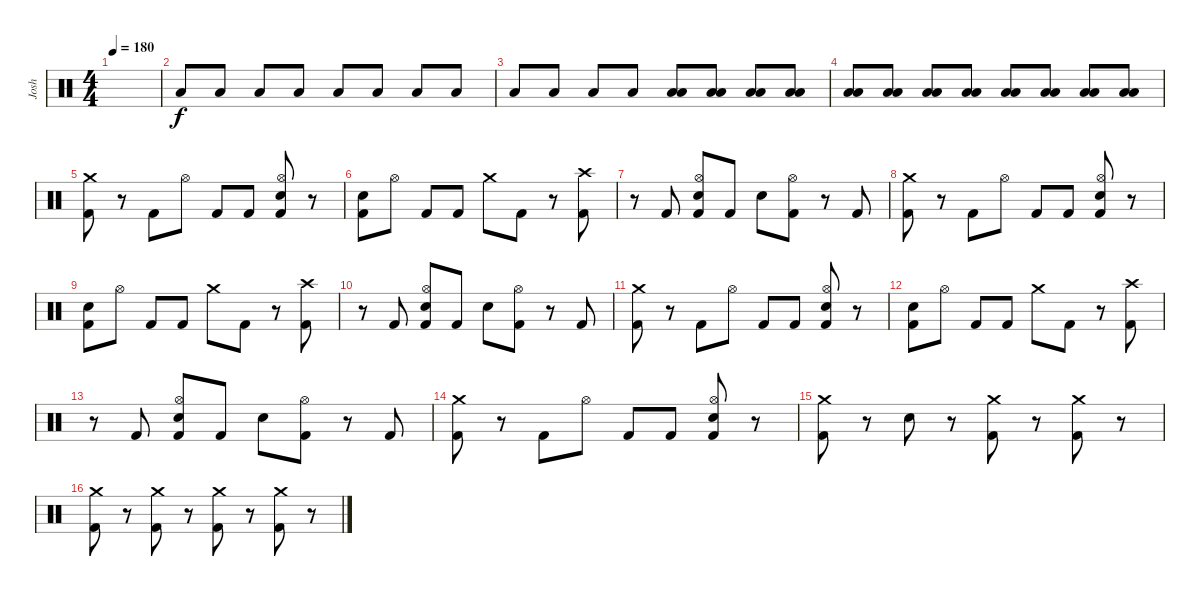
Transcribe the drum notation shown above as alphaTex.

\track ("Josh" "Josh") {instrument percussion}
\staff {score}
\articulation defaults
\ts (4 4)
\tempo 180
\clef neutral
\ks c
|
"Low Tom (hit)".8 "Low Tom (hit)".8 "Low Tom (hit)".8 "Low Tom (hit)".8 "Low Tom (hit)".8 "Low Tom (hit)".8 "Low Tom (hit)".8 "Low Tom (hit)".8 |
"Low Tom (hit)".8 "Low Tom (hit)".8 "Low Tom (hit)".8 "Low Tom (hit)".8 ("Low Floor Tom (hit)" "Low Tom (hit)").8 ("Low Floor Tom (hit)" "Low Tom (hit)").8 ("Low Floor Tom (hit)" "Low Tom (hit)").8 ("Low Floor Tom (hit)" "Low Tom (hit)").8 |
("Low Floor Tom (hit)" "Low Tom (hit)").8 ("Low Floor Tom (hit)" "Low Tom (hit)").8 ("Low Floor Tom (hit)" "Low Tom (hit)").8 ("Low Floor Tom (hit)" "Low Tom (hit)").8 ("Low Floor Tom (hit)" "Low Tom (hit)").8 ("Low Floor Tom (hit)" "Low Tom (hit)").8 ("Low Floor Tom (hit)" "Low Tom (hit)").8 ("Low Floor Tom (hit)" "Low Tom (hit)").8 |
("Crash medium (hit)" "Kick (hit) 2").8 r.8 "Kick (hit) 2".8 "Hi-Hat (open)".8 "Kick (hit) 2".8 "Kick (hit) 2".8 ("Hi-Hat (open)" "Electric Snare (hit)" "Kick (hit) 2").8 r.8 |
("Electric Snare (hit)" "Kick (hit) 2").8 "Hi-Hat (open)".8 "Kick (hit) 2".8 "Kick (hit) 2".8 "Crash medium (hit)".8 "Kick (hit) 2".8 r.8 ("Crash high (hit)" "Kick (hit) 2").8 |
r.8 "Kick (hit) 2".8 ("Hi-Hat (open)" "Electric Snare (hit)" "Kick (hit) 2").8 "Kick (hit) 2".8 "Electric Snare (hit)".8 ("Hi-Hat (open)" "Kick (hit) 2").8 r.8 "Kick (hit) 2".8 |
("Crash medium (hit)" "Kick (hit) 2").8 r.8 "Kick (hit) 2".8 "Hi-Hat (open)".8 "Kick (hit) 2".8 "Kick (hit) 2".8 ("Hi-Hat (open)" "Electric Snare (hit)" "Kick (hit) 2").8 r.8 |
("Electric Snare (hit)" "Kick (hit) 2").8 "Hi-Hat (open)".8 "Kick (hit) 2".8 "Kick (hit) 2".8 "Crash medium (hit)".8 "Kick (hit) 2".8 r.8 ("Crash high (hit)" "Kick (hit) 2").8 |
r.8 "Kick (hit) 2".8 ("Hi-Hat (open)" "Electric Snare (hit)" "Kick (hit) 2").8 "Kick (hit) 2".8 "Electric Snare (hit)".8 ("Hi-Hat (open)" "Kick (hit) 2").8 r.8 "Kick (hit) 2".8 |
("Crash medium (hit)" "Kick (hit) 2").8 r.8 "Kick (hit) 2".8 "Hi-Hat (open)".8 "Kick (hit) 2".8 "Kick (hit) 2".8 ("Hi-Hat (open)" "Electric Snare (hit)" "Kick (hit) 2").8 r.8 |
("Electric Snare (hit)" "Kick (hit) 2").8 "Hi-Hat (open)".8 "Kick (hit) 2".8 "Kick (hit) 2".8 "Crash medium (hit)".8 "Kick (hit) 2".8 r.8 ("Crash high (hit)" "Kick (hit) 2").8 |
r.8 "Kick (hit) 2".8 ("Hi-Hat (open)" "Electric Snare (hit)" "Kick (hit) 2").8 "Kick (hit) 2".8 "Electric Snare (hit)".8 ("Hi-Hat (open)" "Kick (hit) 2").8 r.8 "Kick (hit) 2".8 |
("Crash medium (hit)" "Kick (hit) 2").8 r.8 "Kick (hit) 2".8 "Hi-Hat (open)".8 "Kick (hit) 2".8 "Kick (hit) 2".8 ("Hi-Hat (open)" "Electric Snare (hit)" "Kick (hit) 2").8 r.8 |
("Crash medium (hit)" "Kick (hit) 2").8 r.8 "Electric Snare (hit)".8 r.8 ("Crash medium (hit)" "Kick (hit) 2").8 r.8 ("Crash medium (hit)" "Kick (hit) 2").8 r.8 |
("Crash medium (hit)" "Kick (hit) 2").8 r.8 ("Crash medium (hit)" "Kick (hit) 2").8 r.8 ("Crash medium (hit)" "Kick (hit) 2").8 r.8 ("Crash medium (hit)" "Kick (hit) 2").8 r.8
